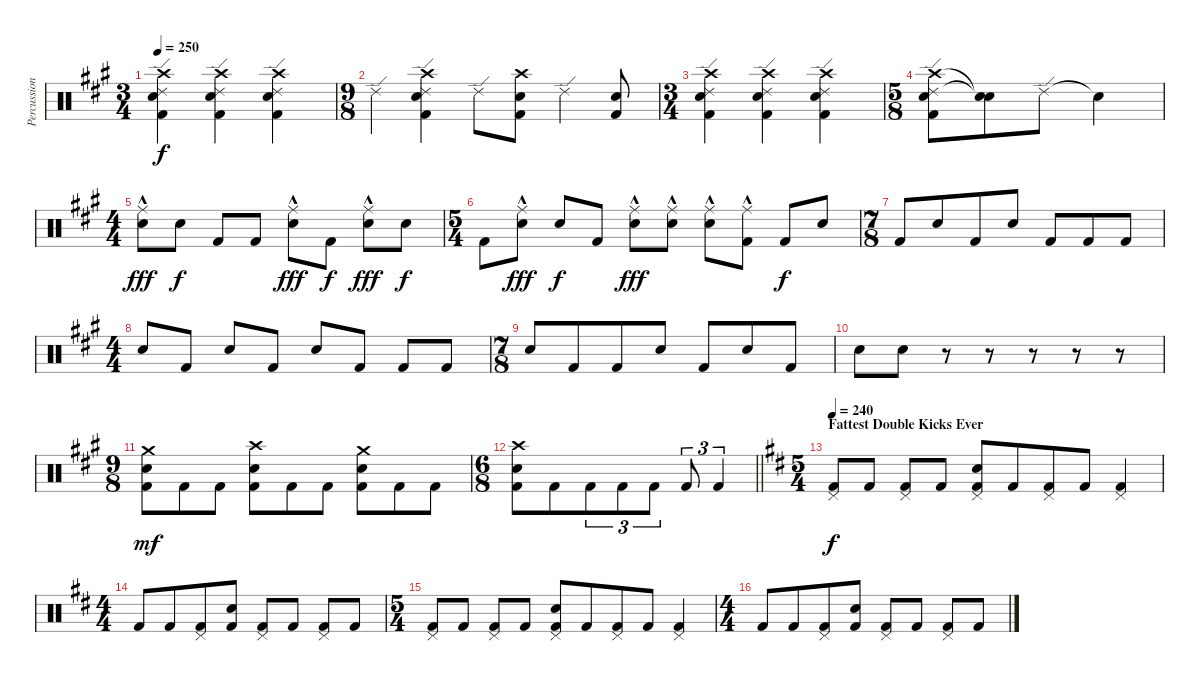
\track ("Percussion" "Percussion") {instrument percussion}
\staff {score}
\articulation defaults
\ts (3 4)
\tempo 250
\clef neutral
\ks f#minor
("Crash high (hit)" "Ride (edge) 2" "Electric Snare (hit)" "Kick (hit) 2").4{dy f} ("Crash high (hit)" "Ride (edge) 2" "Electric Snare (hit)" "Kick (hit) 2").4 ("Crash high (hit)" "Ride (edge) 2" "Electric Snare (hit)" "Kick (hit) 2").4 |
\ts (9 8)
"Ride (edge) 2".4{beam merge} ("Crash high (hit)" "Ride (edge) 2" "Electric Snare (hit)" "Kick (hit) 2").4 "Ride (edge) 2".8 ("Crash high (hit)" "Electric Snare (hit)" "Kick (hit) 2").8 "Ride (edge) 2".4 ("Electric Snare (hit)" "Kick (hit) 2").8 |
\ts (3 4)
("Crash high (hit)" "Ride (edge) 2" "Electric Snare (hit)" "Kick (hit) 2").4 ("Crash high (hit)" "Ride (edge) 2" "Electric Snare (hit)" "Kick (hit) 2").4 ("Crash high (hit)" "Ride (edge) 2" "Electric Snare (hit)" "Kick (hit) 2").4 |
\ts (5 8)
("Crash high (hit)" "Ride (edge) 2" "Electric Snare (hit)" "Kick (hit) 2").8 ("Snare (hit)"{t} "Snare (hit)"{t}).8 "Ride (edge) 2".8 "Snare (hit)"{t}.4 |
\ts (4 4)
("Ride (middle)"{hac} "Electric Snare (hit)").8{dy fff} "Electric Snare (hit)".8{dy f} "Kick (hit) 2".8 "Kick (hit) 2".8 ("Ride (middle)"{hac} "Electric Snare (hit)").8{dy fff} "Kick (hit) 2".8{dy f} ("Ride (middle)"{hac} "Electric Snare (hit)").8{dy fff} "Electric Snare (hit)".8{dy f} |
\ts (5 4)
"Kick (hit) 2".8 ("Ride (middle)"{hac} "Electric Snare (hit)").8{dy fff} "Electric Snare (hit)".8{dy f} "Kick (hit) 2".8 ("Ride (middle)"{hac} "Electric Snare (hit)").8{dy fff} ("Ride (middle)"{hac} "Electric Snare (hit)").8 ("Ride (middle)"{hac} "Electric Snare (hit)").8 ("Ride (middle)"{hac} "Kick (hit) 2").8 "Kick (hit) 2".8{dy f} "Electric Snare (hit)".8 |
\ts (7 8)
"Kick (hit) 2".8 "Electric Snare (hit)".8 "Kick (hit) 2".8 "Electric Snare (hit)".8 "Kick (hit) 2".8 "Kick (hit) 2".8 "Kick (hit) 2".8 |
\ts (4 4)
"Electric Snare (hit)".8 "Kick (hit) 2".8 "Electric Snare (hit)".8 "Kick (hit) 2".8 "Electric Snare (hit)".8 "Kick (hit) 2".8 "Kick (hit) 2".8 "Kick (hit) 2".8 |
\ts (7 8)
"Electric Snare (hit)".8 "Kick (hit) 2".8 "Kick (hit) 2".8 "Electric Snare (hit)".8 "Kick (hit) 2".8 "Electric Snare (hit)".8 "Kick (hit) 2".8 |
"Electric Snare (hit)".8 "Electric Snare (hit)".8 r.8 r.8 r.8 r.8 r.8 |
\ts (9 8)
("Crash medium (hit)" "Electric Snare (hit)" "Kick (hit) 2").8{dy mf} "Kick (hit) 2".8 "Kick (hit) 2".8 ("Crash high (hit)" "Electric Snare (hit)" "Kick (hit) 2").8 "Kick (hit) 2".8 "Kick (hit) 2".8 ("Crash medium (hit)" "Electric Snare (hit)" "Kick (hit) 2").8{beam merge} "Kick (hit) 2".8 "Kick (hit) 2".8 |
\ts (6 8)
\barLineRight lightlight
("Crash high (hit)" "Electric Snare (hit)" "Kick (hit) 2").8 "Kick (hit) 2".8{beam merge} "Kick (hit) 2".8{tu (3 2)} "Kick (hit) 2".8{tu (3 2)} "Kick (hit) 2".8{tu (3 2)} "Kick (hit) 2".8{tu (3 2)} "Kick (hit) 2".4{tu (3 2)} |
\ts (5 4)
\section ("" "Fattest Double Kicks Ever")
\tempo 240
\ks bminor
("Pedal Hi-Hat (hit)" "Kick (hit) 2").8{dy f} "Kick (hit) 2".8 ("Pedal Hi-Hat (hit)" "Kick (hit) 2").8 "Kick (hit) 2".8 ("Pedal Hi-Hat (hit)" "Electric Snare (hit)" "Kick (hit) 2").8 "Kick (hit) 2".8{beam merge} ("Pedal Hi-Hat (hit)" "Kick (hit) 2").8 "Kick (hit) 2".8 ("Pedal Hi-Hat (hit)" "Kick (hit) 2").4 |
\ts (4 4)
"Kick (hit) 2".8 "Kick (hit) 2".8{beam merge} ("Pedal Hi-Hat (hit)" "Kick (hit) 2").8 ("Electric Snare (hit)" "Kick (hit) 2").8 ("Pedal Hi-Hat (hit)" "Kick (hit) 2").8 "Kick (hit) 2".8 ("Pedal Hi-Hat (hit)" "Kick (hit) 2").8 "Kick (hit) 2".8 |
\ts (5 4)
("Pedal Hi-Hat (hit)" "Kick (hit) 2").8 "Kick (hit) 2".8 ("Pedal Hi-Hat (hit)" "Kick (hit) 2").8 "Kick (hit) 2".8 ("Pedal Hi-Hat (hit)" "Electric Snare (hit)" "Kick (hit) 2").8 "Kick (hit) 2".8{beam merge} ("Pedal Hi-Hat (hit)" "Kick (hit) 2").8 "Kick (hit) 2".8 ("Pedal Hi-Hat (hit)" "Kick (hit) 2").4 |
\ts (4 4)
"Kick (hit) 2".8 "Kick (hit) 2".8{beam merge} ("Pedal Hi-Hat (hit)" "Kick (hit) 2").8 ("Electric Snare (hit)" "Kick (hit) 2").8 ("Pedal Hi-Hat (hit)" "Kick (hit) 2").8 "Kick (hit) 2".8 ("Pedal Hi-Hat (hit)" "Kick (hit) 2").8 "Kick (hit) 2".8
